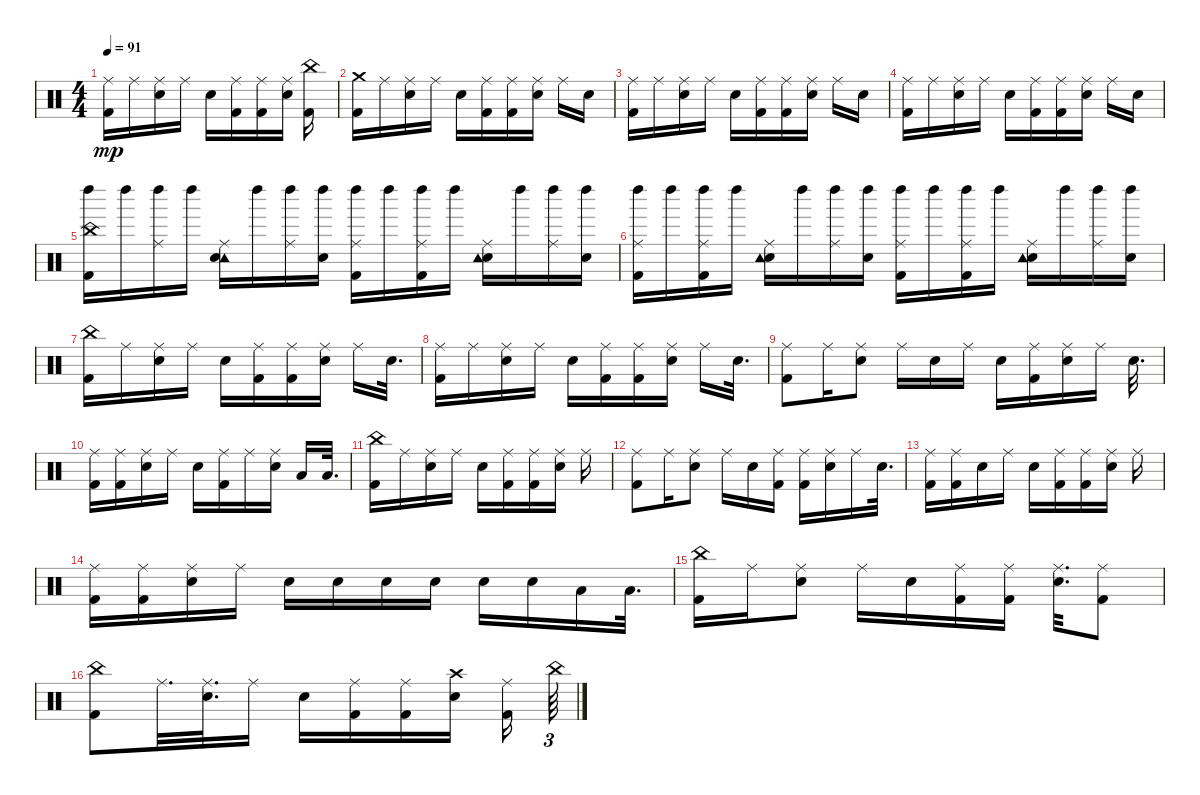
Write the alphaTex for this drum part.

\track "" {instrument percussion}
\staff {score}
\articulation defaults
\ts (4 4)
\tempo 91
\clef neutral
\ks c
("Ride (middle)" "Kick (hit) 2").16{dy mp} "Ride (middle)".16 ("Ride (middle)" "Electric Snare (hit)").16 "Ride (middle)".16 "Electric Snare (hit)".16 ("Kick (hit) 2" "Ride (middle)").16 ("Ride (middle)" "Kick (hit) 2").16 ("Ride (middle)" "Electric Snare (hit)").16 ("China (hit)" "Kick (hit) 2").16 |
("Kick (hit) 2" "Crash medium (hit)").16 "Ride (middle)".16 ("Electric Snare (hit)" "Ride (middle)").16 "Ride (middle)".16 "Electric Snare (hit)".16 ("Kick (hit) 2" "Ride (middle)").16 ("Kick (hit) 2" "Ride (middle)").16 ("Ride (middle)" "Electric Snare (hit)").16 "Ride (middle)".16 "Electric Snare (hit)".16 |
("Kick (hit) 2" "Ride (middle)").16 "Ride (middle)".16 ("Ride (middle)" "Electric Snare (hit)").16 "Ride (middle)".16 "Electric Snare (hit)".16 ("Kick (hit) 2" "Ride (middle)").16 ("Ride (middle)" "Kick (hit) 2").16 ("Ride (middle)" "Electric Snare (hit)").16 "Ride (middle)".16 "Electric Snare (hit)".16 |
("Ride (middle)" "Kick (hit) 2").16 "Ride (middle)".16 ("Ride (middle)" "Electric Snare (hit)").16 "Ride (middle)".16 "Electric Snare (hit)".16 ("Kick (hit) 2" "Ride (middle)").16 ("Ride (middle)" "Kick (hit) 2").16 ("Ride (middle)" "Electric Snare (hit)").16 "Ride (middle)".16 "Electric Snare (hit)".16 |
("Left Maraca (hit)" "Kick (hit) 2" "China (hit)").16 "Left Maraca (hit)".16 ("Left Maraca (hit)" "Ride (middle)").16 "Left Maraca (hit)".16 ("Tambourine (hit)" "Electric Snare (hit)" "Ride (middle)").16 "Left Maraca (hit)".16 ("Left Maraca (hit)" "Ride (middle)").16 ("Left Maraca (hit)" "Electric Snare (hit)").16 ("Left Maraca (hit)" "Kick (hit) 2" "Ride (middle)").16 "Left Maraca (hit)".16 ("Left Maraca (hit)" "Kick (hit) 2" "Ride (middle)").16 "Left Maraca (hit)".16 ("Ride (middle)" "Electric Snare (hit)" "Tambourine (hit)").16 "Left Maraca (hit)".16 ("Left Maraca (hit)" "Ride (middle)").16 ("Electric Snare (hit)" "Left Maraca (hit)").16 |
("Kick (hit) 2" "Ride (middle)" "Left Maraca (hit)").16 "Left Maraca (hit)".16 ("Left Maraca (hit)" "Ride (middle)" "Kick (hit) 2").16 "Left Maraca (hit)".16 ("Ride (middle)" "Electric Snare (hit)" "Tambourine (hit)").16 "Left Maraca (hit)".16 ("Left Maraca (hit)" "Ride (middle)").16 ("Electric Snare (hit)" "Left Maraca (hit)").16 ("Left Maraca (hit)" "Ride (middle)" "Kick (hit) 2").16 "Left Maraca (hit)".16 ("Left Maraca (hit)" "Ride (middle)" "Kick (hit) 2").16 "Left Maraca (hit)".16 ("Electric Snare (hit)" "Ride (middle)" "Tambourine (hit)").16 "Left Maraca (hit)".16 ("Left Maraca (hit)" "Ride (middle)").16 ("Electric Snare (hit)" "Left Maraca (hit)").16 |
("Kick (hit) 2" "China (hit)").16 "Ride (middle)".16 ("Electric Snare (hit)" "Ride (middle)").16 "Ride (middle)".16 "Electric Snare (hit)".16 ("Ride (middle)" "Kick (hit) 2").16 ("Ride (middle)" "Kick (hit) 2").16 ("Ride (middle)" "Electric Snare (hit)").16 "Ride (middle)".16 "Electric Snare (hit)".32{d} |
("Kick (hit) 2" "Ride (middle)").16 "Ride (middle)".16 ("Ride (middle)" "Electric Snare (hit)").16 "Ride (middle)".16 "Electric Snare (hit)".16 ("Kick (hit) 2" "Ride (middle)").16 ("Ride (middle)" "Kick (hit) 2").16 ("Ride (middle)" "Electric Snare (hit)").16 "Ride (middle)".16 "Electric Snare (hit)".32{d} |
("Ride (middle)" "Kick (hit) 2").8 "Ride (middle)".16 ("Ride (middle)" "Electric Snare (hit)").8 "Ride (middle)".16 "Electric Snare (hit)".16 "Ride (middle)".16 "Electric Snare (hit)".16 ("Kick (hit) 2" "Ride (middle)").16 ("Ride (middle)" "Electric Snare (hit)").16 "Ride (middle)".16 "Electric Snare (hit)".32{d} |
("Kick (hit) 2" "Ride (middle)").16 ("Kick (hit) 2" "Ride (middle)").16 ("Ride (middle)" "Electric Snare (hit)").16 "Ride (middle)".16 "Electric Snare (hit)".16 ("Kick (hit) 2" "Ride (middle)").16 "Ride (middle)".16 ("Electric Snare (hit)" "Ride (middle)").16 "Low Tom (hit)".16 "Low Tom (hit)".32{d} |
("China (hit)" "Kick (hit) 2").16 "Ride (middle)".16 ("Ride (middle)" "Electric Snare (hit)").16 "Ride (middle)".16 "Electric Snare (hit)".16 ("Ride (middle)" "Kick (hit) 2").16 ("Ride (middle)" "Kick (hit) 2").16 ("Ride (middle)" "Electric Snare (hit)").16 "Ride (middle)".16 |
("Ride (middle)" "Kick (hit) 2").8 "Ride (middle)".16 ("Ride (middle)" "Electric Snare (hit)").8 "Ride (middle)".16 "Electric Snare (hit)".16 ("Kick (hit) 2" "Ride (middle)").16 ("Ride (middle)" "Kick (hit) 2").16 ("Ride (middle)" "Electric Snare (hit)").16 "Ride (middle)".16 "Electric Snare (hit)".32{d} |
("Ride (middle)" "Kick (hit) 2").16 ("Kick (hit) 2" "Ride (middle)").16 "Electric Snare (hit)".16 "Ride (middle)".16 "Electric Snare (hit)".16 ("Kick (hit) 2" "Ride (middle)").16 ("Ride (middle)" "Kick (hit) 2").16 ("Electric Snare (hit)" "Ride (middle)").16 "Ride (middle)".16 |
("Ride (middle)" "Kick (hit) 2").16 ("Ride (middle)" "Kick (hit) 2").16 ("Ride (middle)" "Electric Snare (hit)").16 "Ride (middle)".16 "Electric Snare (hit)".16 "Electric Snare (hit)".16 "Electric Snare (hit)".16 "Electric Snare (hit)".16 "Electric Snare (hit)".16 "Electric Snare (hit)".16 "Low Tom (hit)".16 "Low Tom (hit)".32{d} |
("China (hit)" "Kick (hit) 2").16 "Ride (middle)".16 ("Ride (middle)" "Electric Snare (hit)").8 "Ride (middle)".16 "Electric Snare (hit)".16 ("Kick (hit) 2" "Ride (middle)").16 ("Ride (middle)" "Kick (hit) 2").16 ("Ride (middle)" "Electric Snare (hit)").32{d} ("Kick (hit) 2" "Ride (middle)").8 |
("China (hit)" "Kick (hit) 2").8 "Ride (middle)".32{d} ("Electric Snare (hit)" "Ride (middle)").32{d} "Ride (middle)".16 "Electric Snare (hit)".16 ("Ride (middle)" "Kick (hit) 2").16 ("Ride (middle)" "Kick (hit) 2").16 ("Electric Snare (hit)" "Crash high (hit)").16 ("Kick (hit) 2" "Ride (middle)").16 "China (hit)".64{tu (3 2)}
